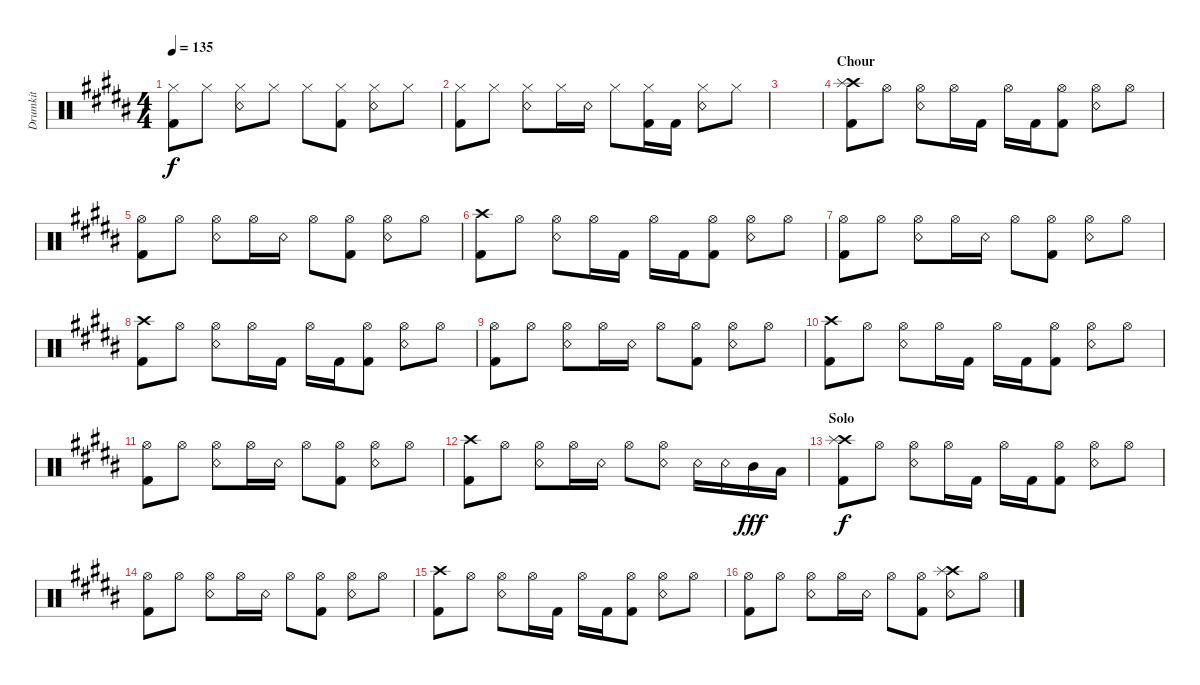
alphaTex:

\track ("Drumkit" "Drumkit") {instrument percussion}
\staff {score}
\articulation defaults
\ts (4 4)
\tempo 135
\clef neutral
\ks b
("Kick (hit) 2" "Hi-Hat (closed)").8{dy f} "Hi-Hat (closed)".8 ("Hi-Hat (closed)" "Snare (rim shot)").8 "Hi-Hat (closed)".8 "Hi-Hat (closed)".8 ("Hi-Hat (closed)" "Kick (hit) 2").8 ("Hi-Hat (closed)" "Snare (rim shot)").8 "Hi-Hat (closed)".8 |
("Hi-Hat (closed)" "Kick (hit) 2").8 "Hi-Hat (closed)".8 ("Hi-Hat (closed)" "Snare (rim shot)").8 "Hi-Hat (closed)".16 "Snare (rim shot)".16 "Hi-Hat (closed)".8 ("Kick (hit) 2" "Hi-Hat (closed)").16 "Kick (hit) 2".16 ("Snare (rim shot)" "Hi-Hat (closed)").8 "Hi-Hat (closed)".8 |
|
\section ("" "Chour")
("Kick (hit) 2" "Crash high (hit)" "Splash (hit)").8 "Hi-Hat (open)".8 ("Snare (rim shot)" "Hi-Hat (open)").8 "Hi-Hat (open)".16 "Kick (hit) 2".16 "Hi-Hat (open)".16 "Kick (hit) 2".16 ("Kick (hit) 2" "Hi-Hat (open)").8 ("Snare (rim shot)" "Hi-Hat (open)").8 "Hi-Hat (open)".8 |
("Kick (hit) 2" "Hi-Hat (open)").8 "Hi-Hat (open)".8 ("Snare (rim shot)" "Hi-Hat (open)").8 "Hi-Hat (open)".16 "Snare (rim shot)".16 "Hi-Hat (open)".8 ("Hi-Hat (open)" "Kick (hit) 2").8 ("Snare (rim shot)" "Hi-Hat (open)").8 "Hi-Hat (open)".8 |
("Kick (hit) 2" "Crash high (hit)").8 "Hi-Hat (open)".8 ("Snare (rim shot)" "Hi-Hat (open)").8 "Hi-Hat (open)".16 "Kick (hit) 2".16 "Hi-Hat (open)".16 "Kick (hit) 2".16 ("Kick (hit) 2" "Hi-Hat (open)").8 ("Snare (rim shot)" "Hi-Hat (open)").8 "Hi-Hat (open)".8 |
("Kick (hit) 2" "Hi-Hat (open)").8 "Hi-Hat (open)".8 ("Snare (rim shot)" "Hi-Hat (open)").8 "Hi-Hat (open)".16 "Snare (rim shot)".16 "Hi-Hat (open)".8 ("Hi-Hat (open)" "Kick (hit) 2").8 ("Snare (rim shot)" "Hi-Hat (open)").8 "Hi-Hat (open)".8 |
("Kick (hit) 2" "Crash high (hit)").8 "Hi-Hat (open)".8 ("Snare (rim shot)" "Hi-Hat (open)").8 "Hi-Hat (open)".16 "Kick (hit) 2".16 "Hi-Hat (open)".16 "Kick (hit) 2".16 ("Kick (hit) 2" "Hi-Hat (open)").8 ("Snare (rim shot)" "Hi-Hat (open)").8 "Hi-Hat (open)".8 |
("Kick (hit) 2" "Hi-Hat (open)").8 "Hi-Hat (open)".8 ("Snare (rim shot)" "Hi-Hat (open)").8 "Hi-Hat (open)".16 "Snare (rim shot)".16 "Hi-Hat (open)".8 ("Hi-Hat (open)" "Kick (hit) 2").8 ("Snare (rim shot)" "Hi-Hat (open)").8 "Hi-Hat (open)".8 |
("Kick (hit) 2" "Crash high (hit)").8 "Hi-Hat (open)".8 ("Snare (rim shot)" "Hi-Hat (open)").8 "Hi-Hat (open)".16 "Kick (hit) 2".16 "Hi-Hat (open)".16 "Kick (hit) 2".16 ("Kick (hit) 2" "Hi-Hat (open)").8 ("Snare (rim shot)" "Hi-Hat (open)").8 "Hi-Hat (open)".8 |
("Kick (hit) 2" "Hi-Hat (open)").8 "Hi-Hat (open)".8 ("Snare (rim shot)" "Hi-Hat (open)").8 "Hi-Hat (open)".16 "Snare (rim shot)".16 "Hi-Hat (open)".8 ("Hi-Hat (open)" "Kick (hit) 2").8 ("Snare (rim shot)" "Hi-Hat (open)").8 "Hi-Hat (open)".8 |
("Kick (hit) 2" "Crash high (hit)").8 "Hi-Hat (open)".8 ("Snare (rim shot)" "Hi-Hat (open)").8 "Hi-Hat (open)".16 "Snare (rim shot)".16 "Hi-Hat (open)".8 ("Hi-Hat (open)" "Snare (rim shot)").8 "Snare (rim shot)".16 "Snare (rim shot)".16 "Mid Tom (hit)".16{dy fff} "Low Tom (hit)".16 |
\section ("" "Solo")
("Kick (hit) 2" "Crash high (hit)" "Splash (hit)").8{dy f} "Hi-Hat (open)".8 ("Snare (rim shot)" "Hi-Hat (open)").8 "Hi-Hat (open)".16 "Kick (hit) 2".16 "Hi-Hat (open)".16 "Kick (hit) 2".16 ("Kick (hit) 2" "Hi-Hat (open)").8 ("Snare (rim shot)" "Hi-Hat (open)").8 "Hi-Hat (open)".8 |
("Kick (hit) 2" "Hi-Hat (open)").8 "Hi-Hat (open)".8 ("Snare (rim shot)" "Hi-Hat (open)").8 "Hi-Hat (open)".16 "Snare (rim shot)".16 "Hi-Hat (open)".8 ("Hi-Hat (open)" "Kick (hit) 2").8 ("Snare (rim shot)" "Hi-Hat (open)").8 "Hi-Hat (open)".8 |
("Kick (hit) 2" "Crash high (hit)").8 "Hi-Hat (open)".8 ("Snare (rim shot)" "Hi-Hat (open)").8 "Hi-Hat (open)".16 "Kick (hit) 2".16 "Hi-Hat (open)".16 "Kick (hit) 2".16 ("Kick (hit) 2" "Hi-Hat (open)").8 ("Snare (rim shot)" "Hi-Hat (open)").8 "Hi-Hat (open)".8 |
("Kick (hit) 2" "Hi-Hat (open)").8 "Hi-Hat (open)".8 ("Snare (rim shot)" "Hi-Hat (open)").8 "Hi-Hat (open)".16 "Snare (rim shot)".16 "Hi-Hat (open)".8 ("Hi-Hat (open)" "Kick (hit) 2").8 ("Snare (rim shot)" "Crash high (hit)" "Splash (hit)").8 "Hi-Hat (open)".8
